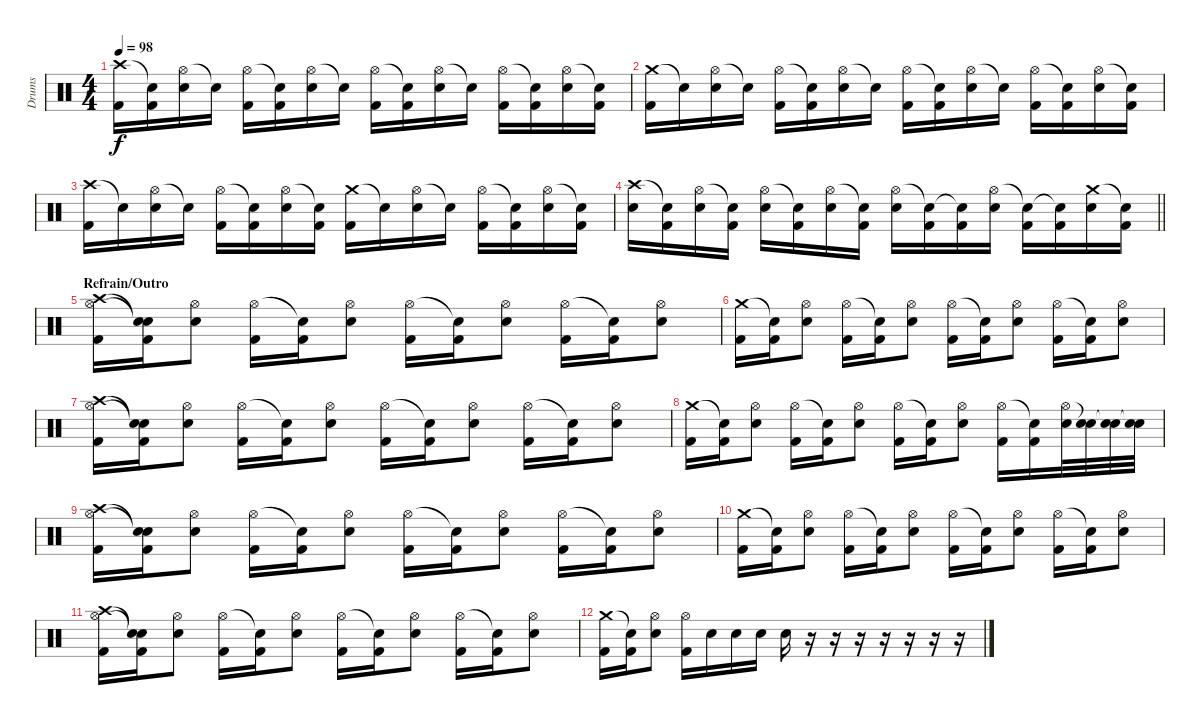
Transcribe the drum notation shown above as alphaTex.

\track ("Drums" "Drums") {instrument percussion}
\staff {score}
\articulation defaults
\ts (4 4)
\tempo 98
\clef neutral
\ks c
("Crash high (hit)" "Kick (hit) 2").16{dy f} ("Snare (hit)"{t} "Kick (hit) 2").16 ("Hi-Hat (open)" "Snare (hit) 2").16 "Snare (hit)"{t}.16 ("Hi-Hat (open)" "Kick (hit) 2").16 ("Snare (hit)"{t} "Kick (hit) 2").16 ("Hi-Hat (open)" "Snare (hit) 2").16 "Snare (hit)"{t}.16 ("Hi-Hat (open)" "Kick (hit) 2").16 ("Snare (hit)"{t} "Kick (hit) 2").16 ("Hi-Hat (open)" "Snare (hit) 2").16 "Snare (hit)"{t}.16 ("Hi-Hat (open)" "Kick (hit) 2").16 ("Snare (hit)"{t} "Kick (hit) 2").16 ("Hi-Hat (open)" "Snare (hit) 2").16 ("Snare (hit)"{t} "Kick (hit) 2").16 |
("Crash medium (hit)" "Kick (hit) 2").16 "Snare (hit)"{t}.16 ("Hi-Hat (open)" "Snare (hit) 2").16 "Snare (hit)"{t}.16 ("Hi-Hat (open)" "Kick (hit) 2").16 ("Snare (hit)"{t} "Kick (hit) 2").16 ("Hi-Hat (open)" "Snare (hit) 2").16 "Snare (hit)"{t}.16 ("Hi-Hat (open)" "Kick (hit) 2").16 ("Snare (hit)"{t} "Kick (hit) 2").16 ("Hi-Hat (open)" "Snare (hit) 2").16 "Snare (hit)"{t}.16 ("Hi-Hat (open)" "Kick (hit) 2").16 ("Snare (hit)"{t} "Kick (hit) 2").16 ("Hi-Hat (open)" "Snare (hit) 2").16 ("Snare (hit)"{t} "Kick (hit) 2").16 |
("Crash high (hit)" "Kick (hit) 2").16 "Snare (hit)"{t}.16 ("Hi-Hat (open)" "Snare (hit) 2").16 "Snare (hit)"{t}.16 ("Hi-Hat (open)" "Kick (hit) 2").16 ("Snare (hit)"{t} "Kick (hit) 2").16 ("Hi-Hat (open)" "Snare (hit) 2").16 ("Snare (hit)"{t} "Kick (hit) 2").16 ("Crash medium (hit)" "Kick (hit) 2").16 "Snare (hit)"{t}.16 ("Hi-Hat (open)" "Snare (hit) 2").16 "Snare (hit)"{t}.16 ("Hi-Hat (open)" "Kick (hit) 2").16 ("Snare (hit)"{t} "Kick (hit) 2").16 ("Hi-Hat (open)" "Snare (hit) 2").16 ("Snare (hit)"{t} "Kick (hit) 2").16 |
\barLineRight lightlight
("Crash high (hit)" "Snare (hit) 2").16 ("Snare (hit)"{t} "Kick (hit) 2").16 ("Hi-Hat (open)" "Snare (hit) 2").16 ("Snare (hit)"{t} "Kick (hit) 2").16 ("Hi-Hat (open)" "Snare (hit) 2").16 ("Snare (hit)"{t} "Kick (hit) 2").16 ("Hi-Hat (open)" "Snare (hit) 2").16 ("Snare (hit)"{t} "Kick (hit) 2").16 ("Hi-Hat (open)" "Snare (hit) 2").16 ("Snare (hit)"{t} "Kick (hit) 2").16 ("Snare (hit)"{t} "Kick (hit) 2").16 ("Hi-Hat (open)" "Snare (hit) 2").16 ("Snare (hit)"{t} "Kick (hit) 2").16 ("Snare (hit)"{t} "Kick (hit) 2").16 ("Crash medium (hit)" "Snare (hit) 2").16 ("Snare (hit)"{t} "Kick (hit) 2").16 |
\section ("" "Refrain/Outro")
("Crash high (hit)" "Hi-Hat (open)" "Kick (hit) 2").16 ("Snare (hit)"{t} "Snare (hit)"{t} "Kick (hit) 2").16 ("Hi-Hat (open)" "Snare (hit) 2").8 ("Hi-Hat (open)" "Kick (hit) 2").16 ("Snare (hit)"{t} "Kick (hit) 2").16 ("Hi-Hat (open)" "Snare (hit) 2").8 ("Hi-Hat (open)" "Kick (hit) 2").16 ("Snare (hit)"{t} "Kick (hit) 2").16 ("Hi-Hat (open)" "Snare (hit) 2").8 ("Hi-Hat (open)" "Kick (hit) 2").16 ("Snare (hit)"{t} "Kick (hit) 2").16 ("Hi-Hat (open)" "Snare (hit) 2").8 |
("Crash medium (hit)" "Kick (hit) 2").16 ("Snare (hit)"{t} "Kick (hit) 2").16 ("Hi-Hat (open)" "Snare (hit) 2").8 ("Hi-Hat (open)" "Kick (hit) 2").16 ("Snare (hit)"{t} "Kick (hit) 2").16 ("Hi-Hat (open)" "Snare (hit) 2").8 ("Hi-Hat (open)" "Kick (hit) 2").16 ("Snare (hit)"{t} "Kick (hit) 2").16 ("Hi-Hat (open)" "Snare (hit) 2").8 ("Hi-Hat (open)" "Kick (hit) 2").16 ("Snare (hit)"{t} "Kick (hit) 2").16 ("Hi-Hat (open)" "Snare (hit) 2").8 |
("Crash high (hit)" "Hi-Hat (open)" "Kick (hit) 2").16 ("Snare (hit)"{t} "Snare (hit)"{t} "Kick (hit) 2").16 ("Hi-Hat (open)" "Snare (hit) 2").8 ("Hi-Hat (open)" "Kick (hit) 2").16 ("Snare (hit)"{t} "Kick (hit) 2").16 ("Hi-Hat (open)" "Snare (hit) 2").8 ("Hi-Hat (open)" "Kick (hit) 2").16 ("Snare (hit)"{t} "Kick (hit) 2").16 ("Hi-Hat (open)" "Snare (hit) 2").8 ("Hi-Hat (open)" "Kick (hit) 2").16 ("Snare (hit)"{t} "Kick (hit) 2").16 ("Hi-Hat (open)" "Snare (hit) 2").8 |
("Crash medium (hit)" "Kick (hit) 2").16 ("Snare (hit)"{t} "Kick (hit) 2").16 ("Hi-Hat (open)" "Snare (hit) 2").8 ("Hi-Hat (open)" "Kick (hit) 2").16 ("Snare (hit)"{t} "Kick (hit) 2").16 ("Hi-Hat (open)" "Snare (hit) 2").8 ("Hi-Hat (open)" "Kick (hit) 2").16 ("Snare (hit)"{t} "Kick (hit) 2").16 ("Hi-Hat (open)" "Snare (hit) 2").8 ("Hi-Hat (open)" "Kick (hit) 2").16 ("Snare (hit)"{t} "Kick (hit) 2").16 ("Hi-Hat (open)" "Snare (hit) 2").32 ("Snare (hit)"{t} "Snare (hit) 2").32 ("Snare (hit)"{t} "Snare (hit) 2").32 ("Snare (hit)"{t} "Snare (hit) 2").32 |
("Crash high (hit)" "Hi-Hat (open)" "Kick (hit) 2").16 ("Snare (hit)"{t} "Snare (hit)"{t} "Kick (hit) 2").16 ("Hi-Hat (open)" "Snare (hit) 2").8 ("Hi-Hat (open)" "Kick (hit) 2").16 ("Snare (hit)"{t} "Kick (hit) 2").16 ("Hi-Hat (open)" "Snare (hit) 2").8 ("Hi-Hat (open)" "Kick (hit) 2").16 ("Snare (hit)"{t} "Kick (hit) 2").16 ("Hi-Hat (open)" "Snare (hit) 2").8 ("Hi-Hat (open)" "Kick (hit) 2").16 ("Snare (hit)"{t} "Kick (hit) 2").16 ("Hi-Hat (open)" "Snare (hit) 2").8 |
("Crash medium (hit)" "Kick (hit) 2").16 ("Snare (hit)"{t} "Kick (hit) 2").16 ("Hi-Hat (open)" "Snare (hit) 2").8 ("Hi-Hat (open)" "Kick (hit) 2").16 ("Snare (hit)"{t} "Kick (hit) 2").16 ("Hi-Hat (open)" "Snare (hit) 2").8 ("Hi-Hat (open)" "Kick (hit) 2").16 ("Snare (hit)"{t} "Kick (hit) 2").16 ("Hi-Hat (open)" "Snare (hit) 2").8 ("Hi-Hat (open)" "Kick (hit) 2").16 ("Snare (hit)"{t} "Kick (hit) 2").16 ("Hi-Hat (open)" "Snare (hit) 2").8 |
("Crash high (hit)" "Hi-Hat (open)" "Kick (hit) 2").16 ("Snare (hit)"{t} "Snare (hit)"{t} "Kick (hit) 2").16 ("Hi-Hat (open)" "Snare (hit) 2").8 ("Hi-Hat (open)" "Kick (hit) 2").16 ("Snare (hit)"{t} "Kick (hit) 2").16 ("Hi-Hat (open)" "Snare (hit) 2").8 ("Hi-Hat (open)" "Kick (hit) 2").16 ("Snare (hit)"{t} "Kick (hit) 2").16 ("Hi-Hat (open)" "Snare (hit) 2").8 ("Hi-Hat (open)" "Kick (hit) 2").16 ("Snare (hit)"{t} "Kick (hit) 2").16 ("Hi-Hat (open)" "Snare (hit) 2").8 |
("Crash medium (hit)" "Kick (hit) 2").16 ("Snare (hit)"{t} "Kick (hit) 2").16 ("Hi-Hat (open)" "Snare (hit) 2").8 ("Hi-Hat (open)" "Kick (hit) 2").16 "Snare (hit) 2".16 "Snare (hit) 2".16 "Snare (hit) 2".16 "Snare (hit) 2".16 r.16 r.16 r.16 r.16 r.16 r.16 r.16
